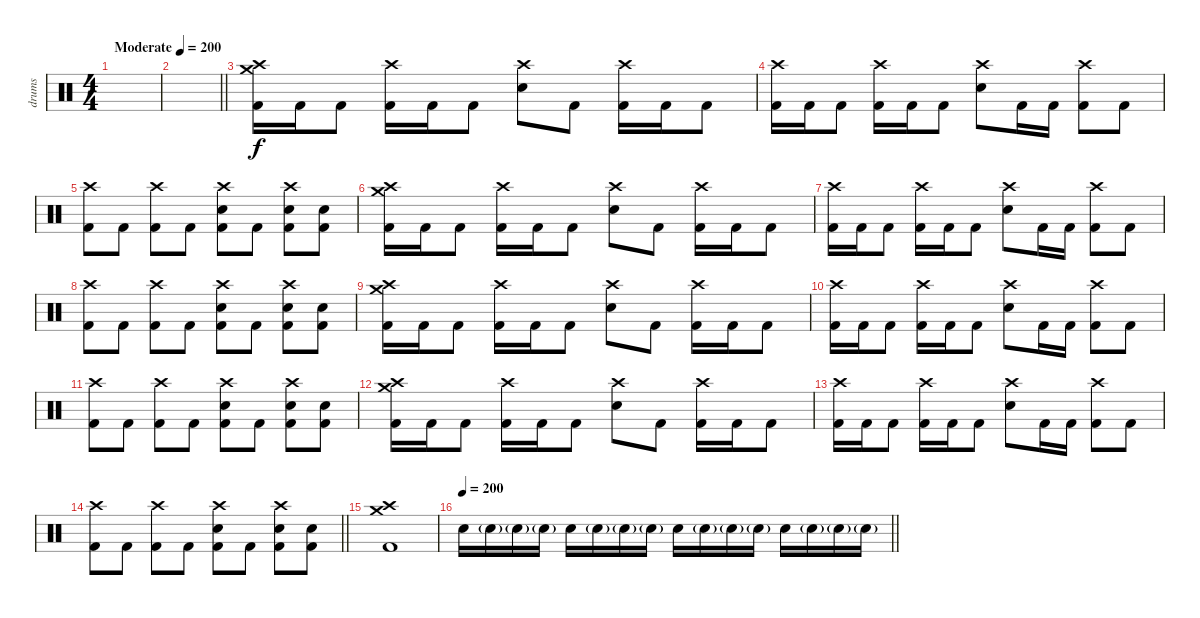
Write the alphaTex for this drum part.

\track ("drums" "drums") {instrument percussion}
\staff {score}
\articulation defaults
\ts (4 4)
\section ("" "")
\tempo (200 "Moderate")
\tempo 120
\tempo (200 "Moderate")
\clef neutral
\ks c
|
\barLineRight lightlight
|
\section ("" "")
("Crash high (hit)" "Crash medium (hit)" "Kick (hit) 2").16 "Kick (hit) 2".16 "Kick (hit) 2".8 ("Crash high (hit)" "Kick (hit) 2").16 "Kick (hit) 2".16 "Kick (hit) 2".8 ("Crash high (hit)" "Electric Snare (hit)").8 "Kick (hit) 2".8 ("Crash high (hit)" "Kick (hit) 2").16 "Kick (hit) 2".16 "Kick (hit) 2".8 |
("Crash high (hit)" "Kick (hit) 2").16 "Kick (hit) 2".16 "Kick (hit) 2".8 ("Crash high (hit)" "Kick (hit) 2").16 "Kick (hit) 2".16 "Kick (hit) 2".8 ("Crash high (hit)" "Electric Snare (hit)").8 "Kick (hit) 2".16 "Kick (hit) 2".16 ("Crash high (hit)" "Kick (hit) 2").8 "Kick (hit) 2".8 |
("Crash high (hit)" "Kick (hit) 2").8 "Kick (hit) 2".8 ("Crash high (hit)" "Kick (hit) 2").8 "Kick (hit) 2".8 ("Crash high (hit)" "Electric Snare (hit)" "Kick (hit) 2").8 "Kick (hit) 2".8 ("Crash high (hit)" "Electric Snare (hit)" "Kick (hit) 2").8 ("Electric Snare (hit)" "Kick (hit) 2").8 |
("Crash high (hit)" "Crash medium (hit)" "Kick (hit) 2").16 "Kick (hit) 2".16 "Kick (hit) 2".8 ("Crash high (hit)" "Kick (hit) 2").16 "Kick (hit) 2".16 "Kick (hit) 2".8 ("Crash high (hit)" "Electric Snare (hit)").8 "Kick (hit) 2".8 ("Crash high (hit)" "Kick (hit) 2").16 "Kick (hit) 2".16 "Kick (hit) 2".8 |
("Crash high (hit)" "Kick (hit) 2").16 "Kick (hit) 2".16 "Kick (hit) 2".8 ("Crash high (hit)" "Kick (hit) 2").16 "Kick (hit) 2".16 "Kick (hit) 2".8 ("Crash high (hit)" "Electric Snare (hit)").8 "Kick (hit) 2".16 "Kick (hit) 2".16 ("Crash high (hit)" "Kick (hit) 2").8 "Kick (hit) 2".8 |
("Crash high (hit)" "Kick (hit) 2").8 "Kick (hit) 2".8 ("Crash high (hit)" "Kick (hit) 2").8 "Kick (hit) 2".8 ("Crash high (hit)" "Electric Snare (hit)" "Kick (hit) 2").8 "Kick (hit) 2".8 ("Crash high (hit)" "Electric Snare (hit)" "Kick (hit) 2").8 ("Electric Snare (hit)" "Kick (hit) 2").8 |
("Crash high (hit)" "Crash medium (hit)" "Kick (hit) 2").16 "Kick (hit) 2".16 "Kick (hit) 2".8 ("Crash high (hit)" "Kick (hit) 2").16 "Kick (hit) 2".16 "Kick (hit) 2".8 ("Crash high (hit)" "Electric Snare (hit)").8 "Kick (hit) 2".8 ("Crash high (hit)" "Kick (hit) 2").16 "Kick (hit) 2".16 "Kick (hit) 2".8 |
("Crash high (hit)" "Kick (hit) 2").16 "Kick (hit) 2".16 "Kick (hit) 2".8 ("Crash high (hit)" "Kick (hit) 2").16 "Kick (hit) 2".16 "Kick (hit) 2".8 ("Crash high (hit)" "Electric Snare (hit)").8 "Kick (hit) 2".16 "Kick (hit) 2".16 ("Crash high (hit)" "Kick (hit) 2").8 "Kick (hit) 2".8 |
("Crash high (hit)" "Kick (hit) 2").8 "Kick (hit) 2".8 ("Crash high (hit)" "Kick (hit) 2").8 "Kick (hit) 2".8 ("Crash high (hit)" "Electric Snare (hit)" "Kick (hit) 2").8 "Kick (hit) 2".8 ("Crash high (hit)" "Electric Snare (hit)" "Kick (hit) 2").8 ("Electric Snare (hit)" "Kick (hit) 2").8 |
("Crash high (hit)" "Crash medium (hit)" "Kick (hit) 2").16 "Kick (hit) 2".16 "Kick (hit) 2".8 ("Crash high (hit)" "Kick (hit) 2").16 "Kick (hit) 2".16 "Kick (hit) 2".8 ("Crash high (hit)" "Electric Snare (hit)").8 "Kick (hit) 2".8 ("Crash high (hit)" "Kick (hit) 2").16 "Kick (hit) 2".16 "Kick (hit) 2".8 |
("Crash high (hit)" "Kick (hit) 2").16 "Kick (hit) 2".16 "Kick (hit) 2".8 ("Crash high (hit)" "Kick (hit) 2").16 "Kick (hit) 2".16 "Kick (hit) 2".8 ("Crash high (hit)" "Electric Snare (hit)").8 "Kick (hit) 2".16 "Kick (hit) 2".16 ("Crash high (hit)" "Kick (hit) 2").8 "Kick (hit) 2".8 |
\barLineRight lightlight
("Crash high (hit)" "Kick (hit) 2").8 "Kick (hit) 2".8 ("Crash high (hit)" "Kick (hit) 2").8 "Kick (hit) 2".8 ("Crash high (hit)" "Electric Snare (hit)" "Kick (hit) 2").8 "Kick (hit) 2".8 ("Crash high (hit)" "Electric Snare (hit)" "Kick (hit) 2").8 ("Electric Snare (hit)" "Kick (hit) 2").8 |
\section ("" "")
("Crash high (hit)" "Crash medium (hit)" "Kick (hit) 2").1 |
\tempo 200
\barLineRight lightlight "Electric Snare (hit)".16 "Electric Snare (hit)"{g}.16 "Electric Snare (hit)"{g}.16 "Electric Snare (hit)"{g}.16 "Electric Snare (hit)".16 "Electric Snare (hit)"{g}.16 "Electric Snare (hit)"{g}.16 "Electric Snare (hit)"{g}.16 "Electric Snare (hit)".16 "Electric Snare (hit)"{g}.16 "Electric Snare (hit)"{g}.16 "Electric Snare (hit)"{g}.16 "Electric Snare (hit)".16 "Electric Snare (hit)"{g}.16 "Electric Snare (hit)"{g}.16 "Electric Snare (hit)"{g}.16
